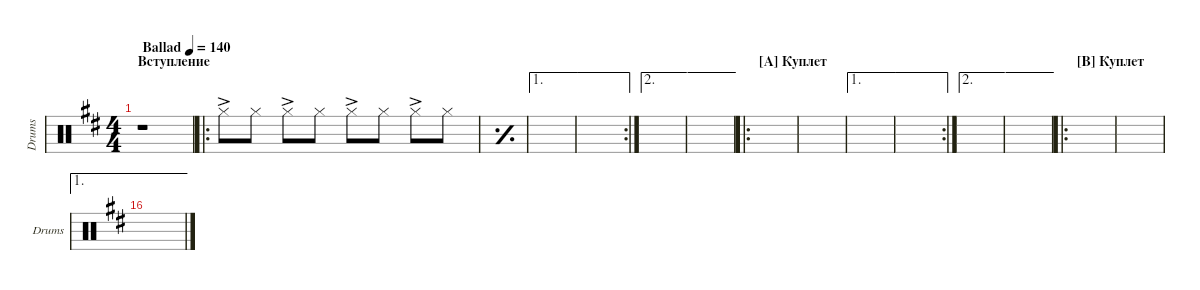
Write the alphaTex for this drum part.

\defaultSystemsLayout 4
\hideDynamics
\bracketExtendMode groupsimilarinstruments
\singleTrackTrackNamePolicy allsystems
\multiTrackTrackNamePolicy allsystems
\otherSystemsTrackNameOrientation horizontal
\defaultBarNumberDisplay FirstOfSystem
\track ("Drumkit" "Drums") {instrument percussion}
\staff {score}
\articulation defaults
\ts (4 4)
\section ("" "Вступление")
\tempo (140 "Ballad")
\clef neutral
\ks bminor
r.1{dy mp} |
\ro "Hi-Hat (closed)"{ac}.8 "Hi-Hat (closed)".8 "Hi-Hat (closed)"{ac}.8 "Hi-Hat (closed)".8 "Hi-Hat (closed)"{ac}.8 "Hi-Hat (closed)".8 "Hi-Hat (closed)"{ac}.8 "Hi-Hat (closed)".8
|
\simile simple
|
\ae 1
|
\ae 1
\rc 2
|
\ae 2
|
\ae 2
|
\ro
\section ("A" "Куплет")
|
|
\ae 1
|
\ae 1
\rc 2
|
\ae 2
|
\ae 2
|
\ro
\section ("B" "Куплет")
|
|
\ae 1
